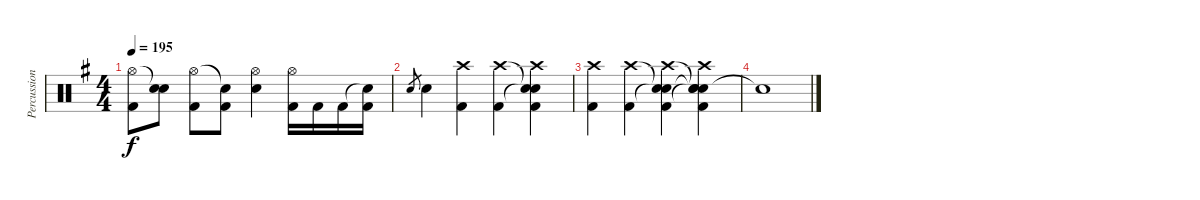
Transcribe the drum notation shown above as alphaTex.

\track ("Percussion" "Percussion") {instrument percussion}
\staff {score}
\articulation defaults
\ts (4 4)
\tempo 195
\clef neutral
\ks g
("Hi-Hat (open)" "Kick (hit) 2").8{dy f} ("Snare (hit)"{t} "Electric Snare (hit)").8 ("Hi-Hat (open)" "Kick (hit) 2").8 ("Snare (hit)"{t} "Kick (hit) 2").8 ("Hi-Hat (open)" "Electric Snare (hit)").4 ("Hi-Hat (open)" "Kick (hit) 2").16 "Kick (hit) 2".16 "Kick (hit) 2".16 ("Snare (hit)"{t} "Kick (hit) 2").16 |
"Electric Snare (hit)".8{gr} "Electric Snare (hit)".4 ("Crash high (hit)" "Kick (hit) 2").4 ("Crash high (hit)" "Kick (hit) 2").4 ("Snare (hit)"{t} "Snare (hit)"{t} "Crash high (hit)" "Kick (hit) 2").4 |
("Crash high (hit)" "Kick (hit) 2").4 ("Crash high (hit)" "Kick (hit) 2").4 ("Snare (hit)"{t} "Snare (hit)"{t} "Crash high (hit)" "Kick (hit) 2").4 ("Snare (hit)"{t} "Crash high (hit)" "Snare (hit)"{t} "Snare (hit)"{t} "Kick (hit) 2").4 |
"Snare (hit)"{t}.1
